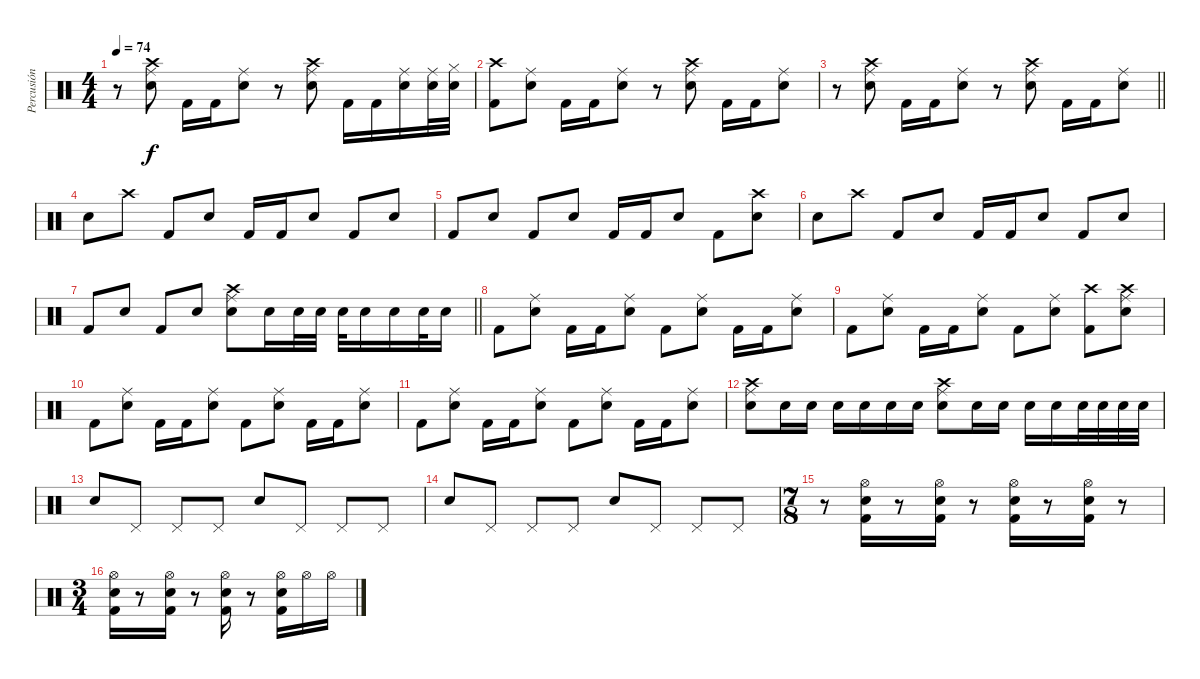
\track ("Percusión" "Percusión") {instrument percussion}
\staff
\articulation defaults
\ts (4 4)
\tempo 74
\clef neutral
\ks c
r.8{dy f} ("Ride (middle)" "Crash high (hit)" "Electric Snare (hit)").8 "Kick (hit) 2".16 "Kick (hit) 2".16 ("Ride (middle)" "Electric Snare (hit)").8 r.8 ("Ride (middle)" "Crash high (hit)" "Electric Snare (hit)").8 "Kick (hit) 2".16 "Kick (hit) 2".16 ("Ride (middle)" "Electric Snare (hit)").16 ("Ride (middle)" "Electric Snare (hit)").32 ("Electric Snare (hit)" "Hi-Hat (closed)").32 |
("Crash high (hit)" "Kick (hit) 2").8 ("Ride (middle)" "Electric Snare (hit)").8 "Kick (hit) 2".16 "Kick (hit) 2".16 ("Ride (middle)" "Electric Snare (hit)").8 r.8 ("Ride (middle)" "Crash high (hit)" "Electric Snare (hit)").8 "Kick (hit) 2".16 "Kick (hit) 2".16 ("Ride (middle)" "Electric Snare (hit)").8 |
\barLineRight lightlight
r.8 ("Ride (middle)" "Crash high (hit)" "Electric Snare (hit)").8 "Kick (hit) 2".16 "Kick (hit) 2".16 ("Ride (middle)" "Electric Snare (hit)").8 r.8 ("Ride (middle)" "Crash high (hit)" "Electric Snare (hit)").8 "Kick (hit) 2".16 "Kick (hit) 2".16 ("Ride (middle)" "Electric Snare (hit)").8 |
"Electric Snare (hit)".8 "Crash high (hit)".8 "Kick (hit) 2".8 "Electric Snare (hit)".8 "Kick (hit) 2".16 "Kick (hit) 2".16 "Electric Snare (hit)".8 "Kick (hit) 2".8 "Electric Snare (hit)".8 |
"Kick (hit) 2".8 "Electric Snare (hit)".8 "Kick (hit) 2".8 "Electric Snare (hit)".8 "Kick (hit) 2".16 "Kick (hit) 2".16 "Electric Snare (hit)".8 "Kick (hit) 2".8 ("Crash high (hit)" "Electric Snare (hit)").8 |
"Electric Snare (hit)".8 "Crash high (hit)".8 "Kick (hit) 2".8 "Electric Snare (hit)".8 "Kick (hit) 2".16 "Kick (hit) 2".16 "Electric Snare (hit)".8 "Kick (hit) 2".8 "Electric Snare (hit)".8 |
\barLineRight lightlight "Kick (hit) 2".8 "Electric Snare (hit)".8 "Kick (hit) 2".8 "Electric Snare (hit)".8
("Ride (middle)" "Crash high (hit)" "Electric Snare (hit)").8 "Electric Snare (hit)".16 "Electric Snare (hit)".32 "Electric Snare (hit)".32 "Electric Snare (hit)".32 "Electric Snare (hit)".16 "Electric Snare (hit)".16 "Electric Snare (hit)".32 "Electric Snare (hit)".16 |
"Kick (hit) 2".8 ("Ride (middle)" "Electric Snare (hit)").8 "Kick (hit) 2".16 "Kick (hit) 2".16 ("Ride (middle)" "Electric Snare (hit)").8 "Kick (hit) 2".8 ("Ride (middle)" "Electric Snare (hit)").8 "Kick (hit) 2".16 "Kick (hit) 2".16 ("Ride (middle)" "Electric Snare (hit)").8 |
"Kick (hit) 2".8 ("Ride (middle)" "Electric Snare (hit)").8 "Kick (hit) 2".16 "Kick (hit) 2".16 ("Ride (middle)" "Electric Snare (hit)").8 "Kick (hit) 2".8 ("Ride (middle)" "Electric Snare (hit)").8 ("Crash high (hit)" "Kick (hit) 2").8 ("Ride (middle)" "Crash high (hit)" "Electric Snare (hit)").8 |
"Kick (hit) 2".8 ("Ride (middle)" "Electric Snare (hit)").8 "Kick (hit) 2".16 "Kick (hit) 2".16 ("Ride (middle)" "Electric Snare (hit)").8 "Kick (hit) 2".8 ("Ride (middle)" "Electric Snare (hit)").8 "Kick (hit) 2".16 "Kick (hit) 2".16 ("Ride (middle)" "Electric Snare (hit)").8 |
"Kick (hit) 2".8 ("Ride (middle)" "Electric Snare (hit)").8 "Kick (hit) 2".16 "Kick (hit) 2".16 ("Ride (middle)" "Electric Snare (hit)").8 "Kick (hit) 2".8 ("Ride (middle)" "Electric Snare (hit)").8 "Kick (hit) 2".16 "Kick (hit) 2".16 ("Ride (middle)" "Electric Snare (hit)").8 |
("Ride (middle)" "Crash high (hit)" "Electric Snare (hit)").8 "Electric Snare (hit)".16 "Electric Snare (hit)".16 "Electric Snare (hit)".16 "Electric Snare (hit)".16 "Electric Snare (hit)".16 "Electric Snare (hit)".16 ("Ride (middle)" "Crash high (hit)" "Electric Snare (hit)").8 "Electric Snare (hit)".16 "Electric Snare (hit)".16 "Electric Snare (hit)".16 "Electric Snare (hit)".16 "Electric Snare (hit)".32 "Electric Snare (hit)".32 "Electric Snare (hit)".32 "Electric Snare (hit)".32 |
"Electric Snare (hit)".8 "Pedal Hi-Hat (hit)".8 "Pedal Hi-Hat (hit)".8 "Pedal Hi-Hat (hit)".8 "Electric Snare (hit)".8 "Pedal Hi-Hat (hit)".8 "Pedal Hi-Hat (hit)".8 "Pedal Hi-Hat (hit)".8 |
"Electric Snare (hit)".8 "Pedal Hi-Hat (hit)".8 "Pedal Hi-Hat (hit)".8 "Pedal Hi-Hat (hit)".8 "Electric Snare (hit)".8 "Pedal Hi-Hat (hit)".8 "Pedal Hi-Hat (hit)".8 "Pedal Hi-Hat (hit)".8 |
\ts (7 8)
r.8 ("Hi-Hat (open)" "Electric Snare (hit)" "Kick (hit) 2").16 r.8 ("Hi-Hat (open)" "Electric Snare (hit)" "Kick (hit) 2").16 r.8 ("Hi-Hat (open)" "Electric Snare (hit)" "Kick (hit) 2").16 r.8 ("Hi-Hat (open)" "Electric Snare (hit)" "Kick (hit) 2").16 r.8 |
\ts (3 4)
("Hi-Hat (open)" "Electric Snare (hit)" "Kick (hit) 2").16 r.8 ("Hi-Hat (open)" "Electric Snare (hit)" "Kick (hit) 2").16 r.8 ("Hi-Hat (open)" "Electric Snare (hit)" "Kick (hit) 2").16 r.8 ("Hi-Hat (open)" "Electric Snare (hit)" "Kick (hit) 2").16 "Hi-Hat (open)".16 "Hi-Hat (open)".16
